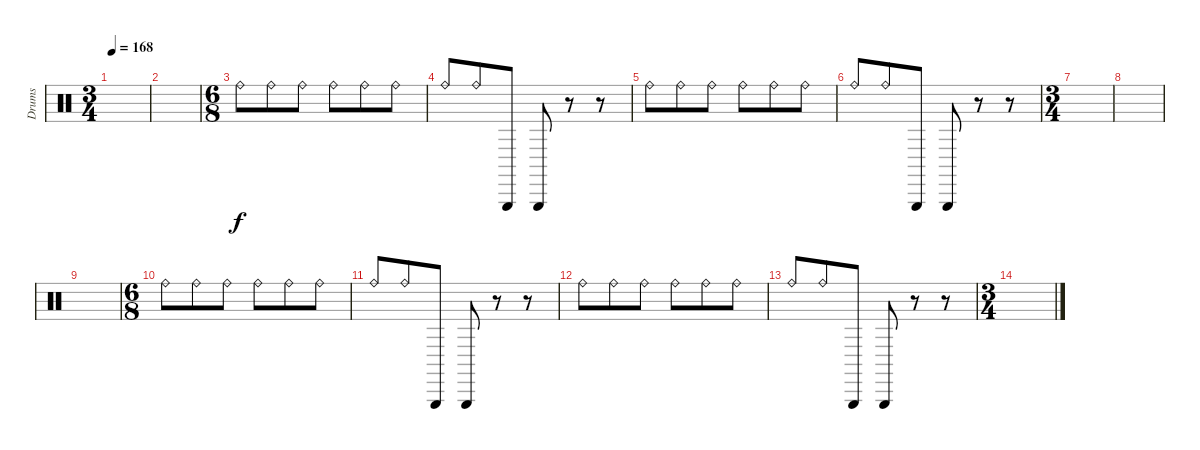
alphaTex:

\track ("Drums" "Drums") {instrument percussion}
\staff {score}
\articulation defaults
\ts (3 4)
\tempo 168
\clef neutral
\ks c
|
|
\ts (6 8)
"Ride (bell)".8 "Ride (bell)".8 "Ride (bell)".8 "Ride (bell)".8 "Ride (bell)".8 "Ride (bell)".8 |
"Ride (bell)".8 "Ride (bell)".8 "Triangle (hit)".8 "Triangle (hit)".8 r.8 r.8 |
"Ride (bell)".8 "Ride (bell)".8 "Ride (bell)".8 "Ride (bell)".8 "Ride (bell)".8 "Ride (bell)".8 |
"Ride (bell)".8 "Ride (bell)".8 "Triangle (hit)".8 "Triangle (hit)".8 r.8 r.8 |
\ts (3 4)
|
|
|
\ts (6 8)
"Ride (bell)".8 "Ride (bell)".8 "Ride (bell)".8 "Ride (bell)".8 "Ride (bell)".8 "Ride (bell)".8 |
"Ride (bell)".8 "Ride (bell)".8 "Triangle (hit)".8 "Triangle (hit)".8 r.8 r.8 |
"Ride (bell)".8 "Ride (bell)".8 "Ride (bell)".8 "Ride (bell)".8 "Ride (bell)".8 "Ride (bell)".8 |
"Ride (bell)".8 "Ride (bell)".8 "Triangle (hit)".8 "Triangle (hit)".8 r.8 r.8 |
\ts (3 4)
